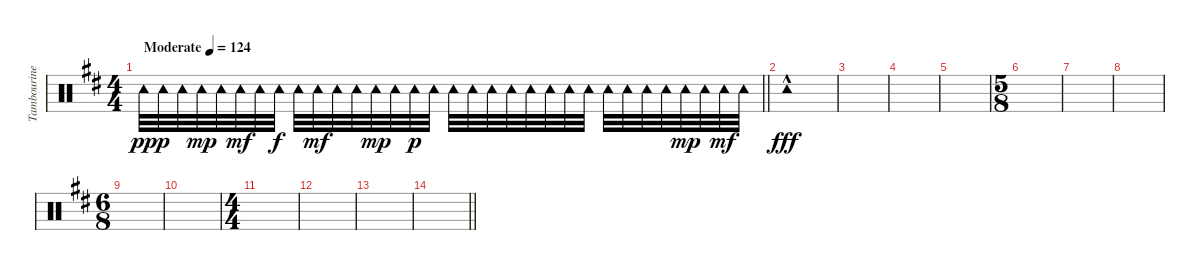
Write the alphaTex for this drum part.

\track ("Tambourine" "Tambourine") {instrument percussion}
\staff {score}
\articulation defaults
\ts (4 4)
\tempo (124 "Moderate")
\clef neutral
\barLineRight lightlight
\ks d "Tambourine (hit)".32{dy pp balance 1} "Tambourine (hit)".32{dy p} "Tambourine (hit)".32 "Tambourine (hit)".32{dy mp} "Tambourine (hit)".32 "Tambourine (hit)".32{dy mf} "Tambourine (hit)".32 "Tambourine (hit)".32{dy f} "Tambourine (hit)".32 "Tambourine (hit)".32{dy mf} "Tambourine (hit)".32 "Tambourine (hit)".32 "Tambourine (hit)".32{dy mp} "Tambourine (hit)".32 "Tambourine (hit)".32{dy p} "Tambourine (hit)".32 "Tambourine (hit)".32 "Tambourine (hit)".32 "Tambourine (hit)".32 "Tambourine (hit)".32 "Tambourine (hit)".32 "Tambourine (hit)".32 "Tambourine (hit)".32 "Tambourine (hit)".32 "Tambourine (hit)".32 "Tambourine (hit)".32 "Tambourine (hit)".32 "Tambourine (hit)".32 "Tambourine (hit)".32{dy mp} "Tambourine (hit)".32 "Tambourine (hit)".32{dy mf} "Tambourine (hit)".32
|
"Tambourine (hit)"{hac}.1{dy fff balance 8} |
|
|
|
\ts (5 8)
|
|
|
\ts (6 8)
|
|
\ts (4 4)
|
|
|
\barLineRight lightlight
